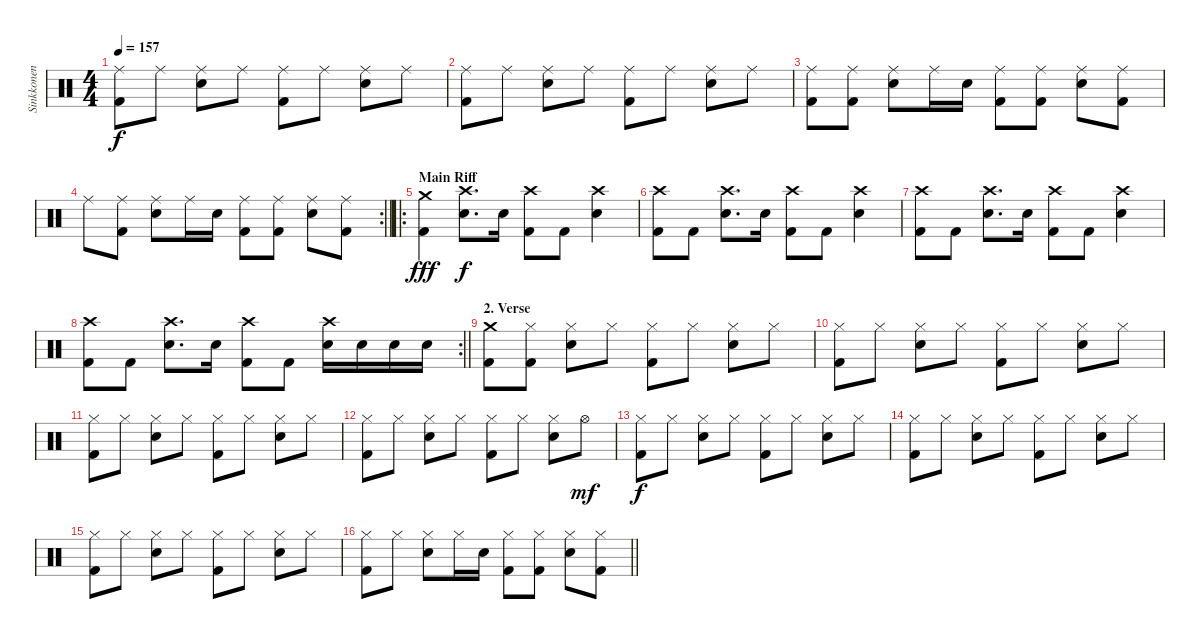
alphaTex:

\track ("Sinkkonen" "Sinkkonen") {instrument percussion}
\staff {score}
\articulation defaults
\ts (4 4)
\tempo 157
\clef neutral
\ks c
("Kick (hit) 2" "Ride (middle)").8{dy f} "Ride (middle)".8 ("Ride (middle)" "Snare (hit) 2").8 "Ride (middle)".8 ("Kick (hit) 2" "Ride (middle)").8 "Ride (middle)".8 ("Ride (middle)" "Snare (hit) 2").8 "Ride (middle)".8 |
("Kick (hit) 2" "Ride (middle)").8 "Ride (middle)".8 ("Ride (middle)" "Snare (hit) 2").8 "Ride (middle)".8 ("Kick (hit) 2" "Ride (middle)").8 "Ride (middle)".8 ("Ride (middle)" "Snare (hit) 2").8 "Ride (middle)".8 |
("Kick (hit) 2" "Ride (middle)").8 ("Kick (hit) 2" "Ride (middle)").8 ("Ride (middle)" "Snare (hit) 2").8 "Ride (middle)".16 "Snare (hit) 2".16 ("Kick (hit) 2" "Ride (middle)").8 ("Kick (hit) 2" "Ride (middle)").8 ("Ride (middle)" "Snare (hit) 2").8 ("Kick (hit) 2" "Ride (middle)").8 |
\rc 2
\barLineRight lightlight "Ride (middle)".8
("Kick (hit) 2" "Ride (middle)").8 ("Ride (middle)" "Snare (hit) 2").8 "Ride (middle)".16 "Snare (hit) 2".16 ("Kick (hit) 2" "Ride (middle)").8 ("Kick (hit) 2" "Ride (middle)").8 ("Ride (middle)" "Snare (hit) 2").8 ("Kick (hit) 2" "Ride (middle)").8 |
\ro
\section ("" "Main Riff")
("Kick (hit) 2" "Crash medium (hit)").4{dy fff} ("Crash high (hit)" "Snare (hit) 2").8{d dy f} "Snare (hit) 2".16 ("Kick (hit) 2" "Crash high (hit)").8 "Kick (hit) 2".8 ("Crash high (hit)" "Snare (hit) 2").4 |
("Kick (hit) 2" "Crash high (hit)").8 "Kick (hit) 2".8 ("Crash high (hit)" "Snare (hit) 2").8{d} "Snare (hit) 2".16 ("Kick (hit) 2" "Crash high (hit)").8 "Kick (hit) 2".8 ("Crash high (hit)" "Snare (hit) 2").4 |
("Kick (hit) 2" "Crash high (hit)").8 "Kick (hit) 2".8 ("Crash high (hit)" "Snare (hit) 2").8{d} "Snare (hit) 2".16 ("Kick (hit) 2" "Crash high (hit)").8 "Kick (hit) 2".8 ("Crash high (hit)" "Snare (hit) 2").4 |
\rc 2
\barLineRight lightlight
("Kick (hit) 2" "Crash high (hit)").8 "Kick (hit) 2".8 ("Crash high (hit)" "Snare (hit) 2").8{d} "Snare (hit) 2".16 ("Kick (hit) 2" "Crash high (hit)").8 "Kick (hit) 2".8 ("Crash high (hit)" "Snare (hit) 2").16 "Snare (hit) 2".16 "Snare (hit) 2".16 "Snare (hit) 2".16 |
\section ("" "2. Verse")
("Kick (hit) 2" "Crash medium (hit)").8 ("Kick (hit) 2" "Hi-Hat (closed)").8 ("Hi-Hat (closed)" "Snare (hit) 2").8 "Hi-Hat (closed)".8 ("Kick (hit) 2" "Hi-Hat (closed)").8 "Hi-Hat (closed)".8 ("Hi-Hat (closed)" "Snare (hit) 2").8 "Hi-Hat (closed)".8 |
("Kick (hit) 2" "Hi-Hat (closed)").8 "Hi-Hat (closed)".8 ("Hi-Hat (closed)" "Snare (hit) 2").8 "Hi-Hat (closed)".8 ("Kick (hit) 2" "Hi-Hat (closed)").8 "Hi-Hat (closed)".8 ("Hi-Hat (closed)" "Snare (hit) 2").8 "Hi-Hat (closed)".8 |
("Kick (hit) 2" "Hi-Hat (closed)").8 "Hi-Hat (closed)".8 ("Hi-Hat (closed)" "Snare (hit) 2").8 "Hi-Hat (closed)".8 ("Kick (hit) 2" "Hi-Hat (closed)").8 "Hi-Hat (closed)".8 ("Hi-Hat (closed)" "Snare (hit) 2").8 "Hi-Hat (closed)".8 |
("Kick (hit) 2" "Hi-Hat (closed)").8 "Hi-Hat (closed)".8 ("Hi-Hat (closed)" "Snare (hit) 2").8 "Hi-Hat (closed)".8 ("Kick (hit) 2" "Hi-Hat (closed)").8 "Hi-Hat (closed)".8 ("Hi-Hat (closed)" "Snare (hit) 2").8 "Hi-Hat (open)".8{dy mf} |
("Kick (hit) 2" "Hi-Hat (closed)").8{dy f} "Hi-Hat (closed)".8 ("Hi-Hat (closed)" "Snare (hit) 2").8 "Hi-Hat (closed)".8 ("Kick (hit) 2" "Hi-Hat (closed)").8 "Hi-Hat (closed)".8 ("Hi-Hat (closed)" "Snare (hit) 2").8 "Hi-Hat (closed)".8 |
("Kick (hit) 2" "Hi-Hat (closed)").8 "Hi-Hat (closed)".8 ("Hi-Hat (closed)" "Snare (hit) 2").8 "Hi-Hat (closed)".8 ("Kick (hit) 2" "Hi-Hat (closed)").8 "Hi-Hat (closed)".8 ("Hi-Hat (closed)" "Snare (hit) 2").8 "Hi-Hat (closed)".8 |
("Kick (hit) 2" "Hi-Hat (closed)").8 "Hi-Hat (closed)".8 ("Hi-Hat (closed)" "Snare (hit) 2").8 "Hi-Hat (closed)".8 ("Kick (hit) 2" "Hi-Hat (closed)").8 "Hi-Hat (closed)".8 ("Hi-Hat (closed)" "Snare (hit) 2").8 "Hi-Hat (closed)".8 |
\barLineRight lightlight
("Kick (hit) 2" "Hi-Hat (closed)").8 "Hi-Hat (closed)".8 ("Hi-Hat (closed)" "Snare (hit) 2").8 "Hi-Hat (closed)".16 "Snare (hit) 2".16 ("Kick (hit) 2" "Hi-Hat (closed)").8 ("Kick (hit) 2" "Hi-Hat (closed)").8 ("Hi-Hat (closed)" "Snare (hit) 2").8 ("Kick (hit) 2" "Hi-Hat (closed)").8
